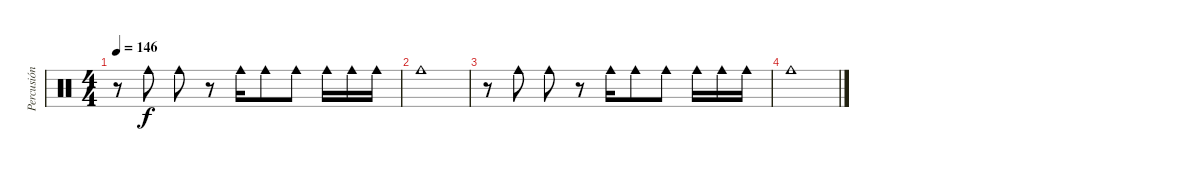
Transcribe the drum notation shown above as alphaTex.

\track ("Percusión" "Percusión") {instrument percussion}
\staff {score}
\articulation defaults
\ts (4 4)
\tempo 146
\clef neutral
\ks c
r.8{dy f} "Cowbell medium (hit)".8 "Cowbell medium (hit)".8 r.8 "Cowbell medium (hit)".16 "Cowbell medium (hit)".8 "Cowbell medium (hit)".8 "Cowbell medium (hit)".16 "Cowbell medium (hit)".16 "Cowbell medium (hit)".16 |
"Cowbell medium (hit)".1 |
r.8 "Cowbell medium (hit)".8 "Cowbell medium (hit)".8 r.8 "Cowbell medium (hit)".16 "Cowbell medium (hit)".8 "Cowbell medium (hit)".8 "Cowbell medium (hit)".16 "Cowbell medium (hit)".16 "Cowbell medium (hit)".16 |
"Cowbell medium (hit)".1
